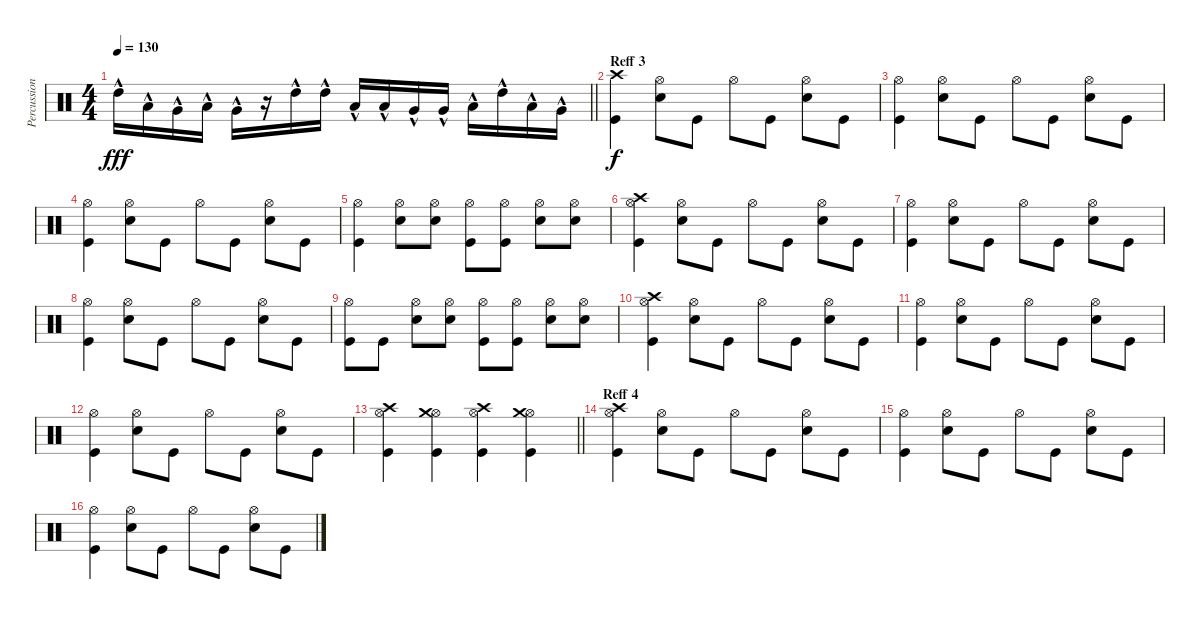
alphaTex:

\track ("Percussion 1" "Percussion") {instrument percussion}
\staff {score}
\articulation defaults
\ts (4 4)
\tempo 130
\clef neutral
\barLineRight lightlight
\ks c "High Tom (hit)"{hac}.16{dy fff} "Low Tom (hit)"{hac}.16 "Very Low Tom (hit)"{hac}.16 "Low Floor Tom (hit)"{hac}.16 "Very Low Tom (hit)"{hac}.16
r.16 "High Tom (hit)"{hac}.16 "High Tom (hit)"{hac}.16 "Low Tom (hit)"{hac}.16 "Low Tom (hit)"{hac}.16 "Very Low Tom (hit)"{hac}.16 "Very Low Tom (hit)"{hac}.16 "Low Floor Tom (hit)"{hac}.16 "High Tom (hit)"{hac}.16 "Low Tom (hit)"{hac}.16 "Very Low Tom (hit)"{hac}.16 |
\section ("" "Reff 3")
("Crash high (hit)" "Kick (hit)").4{dy f} ("Hi-Hat (open)" "Electric Snare (hit)").8 "Kick (hit)".8 "Hi-Hat (open)".8 "Kick (hit)".8 ("Hi-Hat (open)" "Electric Snare (hit)").8 "Kick (hit)".8 |
("Hi-Hat (open)" "Kick (hit)").4 ("Hi-Hat (open)" "Electric Snare (hit)").8 "Kick (hit)".8 "Hi-Hat (open)".8 "Kick (hit)".8 ("Hi-Hat (open)" "Electric Snare (hit)").8 "Kick (hit)".8 |
("Hi-Hat (open)" "Kick (hit)").4 ("Hi-Hat (open)" "Electric Snare (hit)").8 "Kick (hit)".8 "Hi-Hat (open)".8 "Kick (hit)".8 ("Hi-Hat (open)" "Electric Snare (hit)").8 "Kick (hit)".8 |
("Hi-Hat (open)" "Kick (hit)").4 ("Hi-Hat (open)" "Electric Snare (hit)").8 ("Hi-Hat (open)" "Electric Snare (hit)").8 ("Hi-Hat (open)" "Kick (hit)").8 ("Hi-Hat (open)" "Kick (hit)").8 ("Hi-Hat (open)" "Electric Snare (hit)").8 ("Hi-Hat (open)" "Electric Snare (hit)").8 |
("Hi-Hat (open)" "Crash high (hit)" "Kick (hit)").4 ("Hi-Hat (open)" "Electric Snare (hit)").8 "Kick (hit)".8 "Hi-Hat (open)".8 "Kick (hit)".8 ("Hi-Hat (open)" "Electric Snare (hit)").8 "Kick (hit)".8 |
("Hi-Hat (open)" "Kick (hit)").4 ("Hi-Hat (open)" "Electric Snare (hit)").8 "Kick (hit)".8 "Hi-Hat (open)".8 "Kick (hit)".8 ("Hi-Hat (open)" "Electric Snare (hit)").8 "Kick (hit)".8 |
("Hi-Hat (open)" "Kick (hit)").4 ("Hi-Hat (open)" "Electric Snare (hit)").8 "Kick (hit)".8 "Hi-Hat (open)".8 "Kick (hit)".8 ("Hi-Hat (open)" "Electric Snare (hit)").8 "Kick (hit)".8 |
("Hi-Hat (open)" "Kick (hit)").8 "Kick (hit)".8 ("Hi-Hat (open)" "Electric Snare (hit)").8 ("Hi-Hat (open)" "Electric Snare (hit)").8 ("Hi-Hat (open)" "Kick (hit)").8 ("Hi-Hat (open)" "Kick (hit)").8 ("Hi-Hat (open)" "Electric Snare (hit)").8 ("Hi-Hat (open)" "Electric Snare (hit)").8 |
("Hi-Hat (open)" "Crash high (hit)" "Kick (hit)").4 ("Hi-Hat (open)" "Electric Snare (hit)").8 "Kick (hit)".8 "Hi-Hat (open)".8 "Kick (hit)".8 ("Hi-Hat (open)" "Electric Snare (hit)").8 "Kick (hit)".8 |
("Hi-Hat (open)" "Kick (hit)").4 ("Hi-Hat (open)" "Electric Snare (hit)").8 "Kick (hit)".8 "Hi-Hat (open)".8 "Kick (hit)".8 ("Hi-Hat (open)" "Electric Snare (hit)").8 "Kick (hit)".8 |
("Hi-Hat (open)" "Kick (hit)").4 ("Hi-Hat (open)" "Electric Snare (hit)").8 "Kick (hit)".8 "Hi-Hat (open)".8 "Kick (hit)".8 ("Hi-Hat (open)" "Electric Snare (hit)").8 "Kick (hit)".8 |
\barLineRight lightlight
("Hi-Hat (open)" "Crash high (hit)" "Kick (hit)").4 ("Hi-Hat (open)" "Crash medium (hit)" "Kick (hit)").4 ("Hi-Hat (open)" "Crash high (hit)" "Kick (hit)").4 ("Hi-Hat (open)" "Crash medium (hit)" "Kick (hit)").4 |
\section ("" "Reff 4")
("Hi-Hat (open)" "Crash high (hit)" "Kick (hit)").4 ("Hi-Hat (open)" "Electric Snare (hit)").8 "Kick (hit)".8 "Hi-Hat (open)".8 "Kick (hit)".8 ("Hi-Hat (open)" "Electric Snare (hit)").8 "Kick (hit)".8 |
("Hi-Hat (open)" "Kick (hit)").4 ("Hi-Hat (open)" "Electric Snare (hit)").8 "Kick (hit)".8 "Hi-Hat (open)".8 "Kick (hit)".8 ("Hi-Hat (open)" "Electric Snare (hit)").8 "Kick (hit)".8 |
("Hi-Hat (open)" "Kick (hit)").4 ("Hi-Hat (open)" "Electric Snare (hit)").8 "Kick (hit)".8 "Hi-Hat (open)".8 "Kick (hit)".8 ("Hi-Hat (open)" "Electric Snare (hit)").8 "Kick (hit)".8
